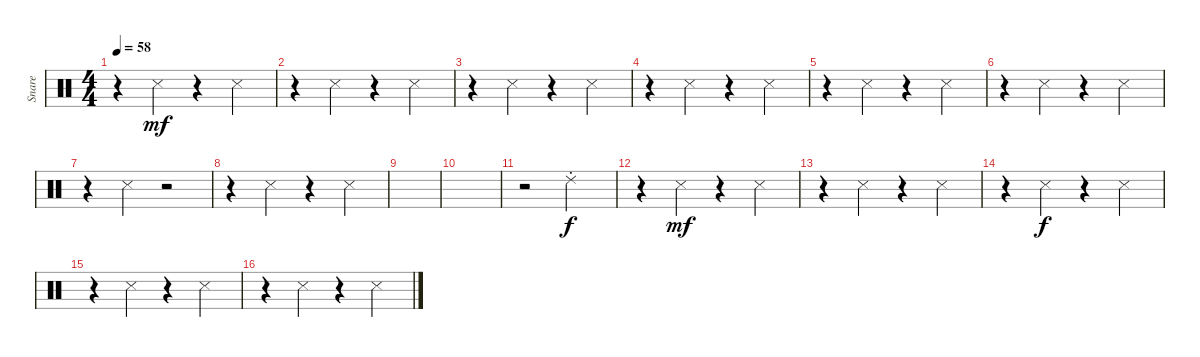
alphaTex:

\track ("Snare" "Snare") {instrument percussion}
\staff {score}
\articulation defaults
\ts (4 4)
\tempo 58
\clef neutral
\ks c
r.4{dy mf} "Snare (side stick) 3".4 r.4 "Snare (side stick) 3".4 |
r.4 "Snare (side stick) 3".4 r.4 "Snare (side stick) 3".4 |
r.4 "Snare (side stick) 3".4 r.4 "Snare (side stick) 3".4 |
r.4 "Snare (side stick) 3".4 r.4 "Snare (side stick) 3".4 |
r.4 "Snare (side stick) 3".4 r.4 "Snare (side stick) 3".4 |
r.4 "Snare (side stick) 3".4 r.4 "Snare (side stick) 3".4 |
r.4 "Snare (side stick) 3".4 r.2 |
r.4 "Snare (side stick) 3".4 r.4 "Snare (side stick) 3".4 |
|
|
r.2 "Ride (choke) 2".2{dy f} |
r.4 "Snare (side stick) 3".4{dy mf} r.4 "Snare (side stick) 3".4 |
r.4 "Snare (side stick) 3".4 r.4 "Snare (side stick) 3".4 |
r.4 "Snare (side stick) 3".4{dy f} r.4 "Snare (side stick) 3".4 |
r.4 "Snare (side stick) 3".4 r.4 "Snare (side stick) 3".4 |
r.4 "Snare (side stick) 3".4 r.4 "Snare (side stick) 3".4
